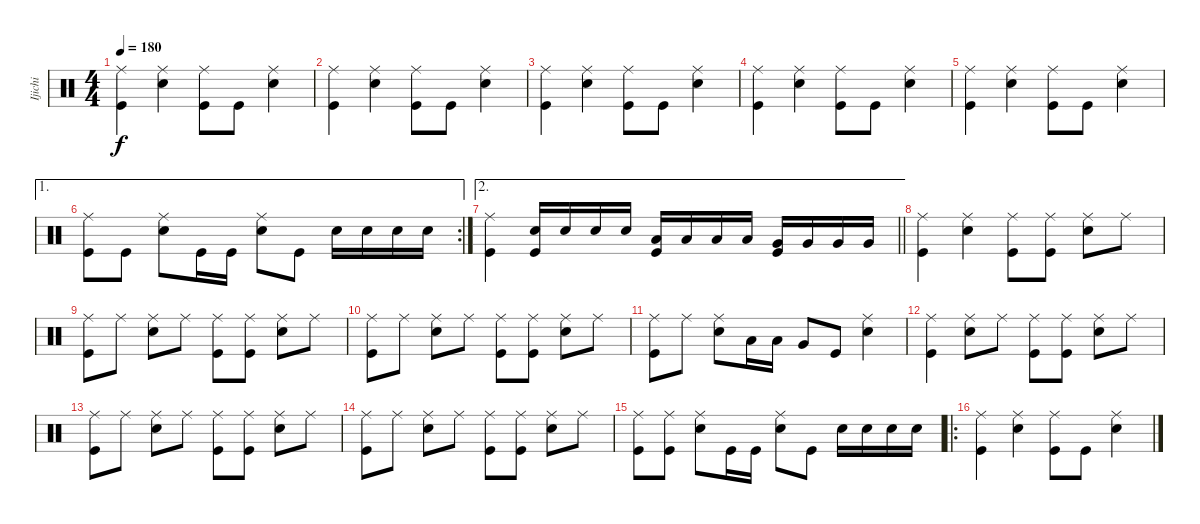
\track ("Ijichi" "Ijichi") {instrument percussion}
\staff {score}
\articulation defaults
\ts (4 4)
\tempo 180
\clef neutral
\ks c
("Ride (middle)" "Kick (hit)").4{dy f} ("Ride (middle)" "Snare (hit) 2").4 ("Ride (middle)" "Kick (hit)").8 "Kick (hit)".8 ("Ride (middle)" "Snare (hit) 2").4 |
("Ride (middle)" "Kick (hit)").4 ("Ride (middle)" "Snare (hit) 2").4 ("Ride (middle)" "Kick (hit)").8 "Kick (hit)".8 ("Ride (middle)" "Snare (hit) 2").4 |
("Ride (middle)" "Kick (hit)").4 ("Ride (middle)" "Snare (hit) 2").4 ("Ride (middle)" "Kick (hit)").8 "Kick (hit)".8 ("Ride (middle)" "Snare (hit) 2").4 |
("Ride (middle)" "Kick (hit)").4 ("Ride (middle)" "Snare (hit) 2").4 ("Ride (middle)" "Kick (hit)").8 "Kick (hit)".8 ("Ride (middle)" "Snare (hit) 2").4 |
("Ride (middle)" "Kick (hit)").4 ("Ride (middle)" "Snare (hit) 2").4 ("Ride (middle)" "Kick (hit)").8 "Kick (hit)".8 ("Ride (middle)" "Snare (hit) 2").4 |
\ae 1
\rc 2
("Ride (middle)" "Kick (hit)").8 "Kick (hit)".8 ("Ride (middle)" "Snare (hit) 2").8 "Kick (hit)".16 "Kick (hit)".16 ("Ride (middle)" "Snare (hit) 2").8 "Kick (hit)".8 "Snare (hit) 2".16 "Snare (hit) 2".16 "Snare (hit) 2".16 "Snare (hit) 2".16 |
\ae 2
\barLineRight lightlight
("Ride (middle)" "Kick (hit)").4 ("Snare (hit) 2" "Kick (hit)").16 "Snare (hit) 2".16 "Snare (hit) 2".16 "Snare (hit) 2".16 ("Kick (hit)" "Low Tom (hit)").16 "Low Tom (hit)".16 "Low Tom (hit)".16 "Low Tom (hit)".16 ("Kick (hit)" "Very Low Tom (hit)").16 "Very Low Tom (hit)".16 "Very Low Tom (hit)".16 "Very Low Tom (hit)".16 |
("Ride (middle)" "Kick (hit)").4 ("Ride (middle)" "Snare (hit) 2").4 ("Ride (middle)" "Kick (hit)").8 ("Ride (middle)" "Kick (hit)").8 ("Ride (middle)" "Snare (hit) 2").8 "Ride (middle)".8 |
("Ride (middle)" "Kick (hit)").8 "Ride (middle)".8 ("Ride (middle)" "Snare (hit) 2").8 "Ride (middle)".8 ("Ride (middle)" "Kick (hit)").8 ("Ride (middle)" "Kick (hit)").8 ("Ride (middle)" "Snare (hit) 2").8 "Ride (middle)".8 |
("Ride (middle)" "Kick (hit)").8 "Ride (middle)".8 ("Ride (middle)" "Snare (hit) 2").8 "Ride (middle)".8 ("Ride (middle)" "Kick (hit)").8 ("Ride (middle)" "Kick (hit)").8 ("Ride (middle)" "Snare (hit) 2").8 "Ride (middle)".8 |
("Kick (hit)" "Ride (middle)").8 "Ride (middle)".8 ("Snare (hit) 2" "Ride (middle)").8 "Low Tom (hit)".16 "Low Tom (hit)".16 "Very Low Tom (hit)".8 "Kick (hit)".8 ("Ride (middle)" "Snare (hit) 2").4 |
("Ride (middle)" "Kick (hit)").4 ("Ride (middle)" "Snare (hit) 2").8 "Ride (middle)".8 ("Ride (middle)" "Kick (hit)").8 ("Ride (middle)" "Kick (hit)").8 ("Ride (middle)" "Snare (hit) 2").8 "Ride (middle)".8 |
("Ride (middle)" "Kick (hit)").8 "Ride (middle)".8 ("Ride (middle)" "Snare (hit) 2").8 "Ride (middle)".8 ("Ride (middle)" "Kick (hit)").8 ("Ride (middle)" "Kick (hit)").8 ("Ride (middle)" "Snare (hit) 2").8 "Ride (middle)".8 |
("Ride (middle)" "Kick (hit)").8 "Ride (middle)".8 ("Ride (middle)" "Snare (hit) 2").8 "Ride (middle)".8 ("Ride (middle)" "Kick (hit)").8 ("Ride (middle)" "Kick (hit)").8 ("Ride (middle)" "Snare (hit) 2").8 "Ride (middle)".8 |
("Ride (middle)" "Kick (hit)").8 ("Ride (middle)" "Kick (hit)").8 ("Ride (middle)" "Snare (hit) 2").8 "Kick (hit)".16 "Kick (hit)".16 ("Snare (hit) 2" "Ride (middle)").8 "Kick (hit)".8 "Snare (hit) 2".16 "Snare (hit) 2".16 "Snare (hit) 2".16 "Snare (hit) 2".16 |
\ro
("Ride (middle)" "Kick (hit)").4 ("Ride (middle)" "Snare (hit) 2").4 ("Ride (middle)" "Kick (hit)").8 "Kick (hit)".8 ("Ride (middle)" "Snare (hit) 2").4
